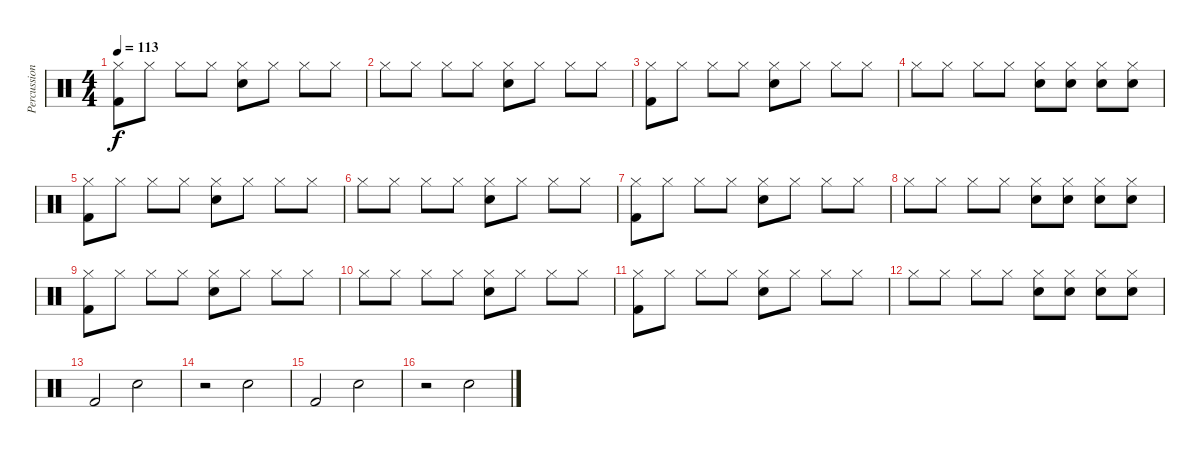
\track ("Percussion" "Percussion") {instrument percussion}
\staff {score}
\articulation defaults
\ts (4 4)
\tempo 113
\clef neutral
\ks c
("Hi-Hat (closed)" "Kick (hit) 2").8{dy f} "Hi-Hat (closed)".8 "Hi-Hat (closed)".8 "Hi-Hat (closed)".8 ("Hi-Hat (closed)" "Electric Snare (hit)").8 "Hi-Hat (closed)".8 "Hi-Hat (closed)".8 "Hi-Hat (closed)".8 |
"Hi-Hat (closed)".8 "Hi-Hat (closed)".8 "Hi-Hat (closed)".8 "Hi-Hat (closed)".8 ("Hi-Hat (closed)" "Electric Snare (hit)").8 "Hi-Hat (closed)".8 "Hi-Hat (closed)".8 "Hi-Hat (closed)".8 |
("Hi-Hat (closed)" "Kick (hit) 2").8 "Hi-Hat (closed)".8 "Hi-Hat (closed)".8 "Hi-Hat (closed)".8 ("Hi-Hat (closed)" "Electric Snare (hit)").8 "Hi-Hat (closed)".8 "Hi-Hat (closed)".8 "Hi-Hat (closed)".8 |
"Hi-Hat (closed)".8 "Hi-Hat (closed)".8 "Hi-Hat (closed)".8 "Hi-Hat (closed)".8 ("Hi-Hat (closed)" "Electric Snare (hit)").8 ("Snare (hit) 2" "Hi-Hat (closed)").8 ("Snare (hit) 2" "Hi-Hat (closed)").8 ("Snare (hit) 2" "Hi-Hat (closed)").8 |
("Hi-Hat (closed)" "Kick (hit) 2").8 "Hi-Hat (closed)".8 "Hi-Hat (closed)".8 "Hi-Hat (closed)".8 ("Hi-Hat (closed)" "Electric Snare (hit)").8 "Hi-Hat (closed)".8 "Hi-Hat (closed)".8 "Hi-Hat (closed)".8 |
"Hi-Hat (closed)".8 "Hi-Hat (closed)".8 "Hi-Hat (closed)".8 "Hi-Hat (closed)".8 ("Hi-Hat (closed)" "Electric Snare (hit)").8 "Hi-Hat (closed)".8 "Hi-Hat (closed)".8 "Hi-Hat (closed)".8 |
("Hi-Hat (closed)" "Kick (hit) 2").8 "Hi-Hat (closed)".8 "Hi-Hat (closed)".8 "Hi-Hat (closed)".8 ("Hi-Hat (closed)" "Electric Snare (hit)").8 "Hi-Hat (closed)".8 "Hi-Hat (closed)".8 "Hi-Hat (closed)".8 |
"Hi-Hat (closed)".8 "Hi-Hat (closed)".8 "Hi-Hat (closed)".8 "Hi-Hat (closed)".8 ("Hi-Hat (closed)" "Electric Snare (hit)").8 ("Snare (hit) 2" "Hi-Hat (closed)").8 ("Snare (hit) 2" "Hi-Hat (closed)").8 ("Snare (hit) 2" "Hi-Hat (closed)").8 |
("Hi-Hat (closed)" "Kick (hit) 2").8 "Hi-Hat (closed)".8 "Hi-Hat (closed)".8 "Hi-Hat (closed)".8 ("Hi-Hat (closed)" "Electric Snare (hit)").8 "Hi-Hat (closed)".8 "Hi-Hat (closed)".8 "Hi-Hat (closed)".8 |
"Hi-Hat (closed)".8 "Hi-Hat (closed)".8 "Hi-Hat (closed)".8 "Hi-Hat (closed)".8 ("Hi-Hat (closed)" "Electric Snare (hit)").8 "Hi-Hat (closed)".8 "Hi-Hat (closed)".8 "Hi-Hat (closed)".8 |
("Hi-Hat (closed)" "Kick (hit) 2").8 "Hi-Hat (closed)".8 "Hi-Hat (closed)".8 "Hi-Hat (closed)".8 ("Hi-Hat (closed)" "Electric Snare (hit)").8 "Hi-Hat (closed)".8 "Hi-Hat (closed)".8 "Hi-Hat (closed)".8 |
"Hi-Hat (closed)".8 "Hi-Hat (closed)".8 "Hi-Hat (closed)".8 "Hi-Hat (closed)".8 ("Hi-Hat (closed)" "Electric Snare (hit)").8 ("Snare (hit) 2" "Hi-Hat (closed)").8 ("Snare (hit) 2" "Hi-Hat (closed)").8 ("Snare (hit) 2" "Hi-Hat (closed)").8 |
"Kick (hit) 2".2 "Electric Snare (hit)".2 |
r.2 "Electric Snare (hit)".2 |
"Kick (hit) 2".2 "Electric Snare (hit)".2 |
r.2 "Electric Snare (hit)".2
